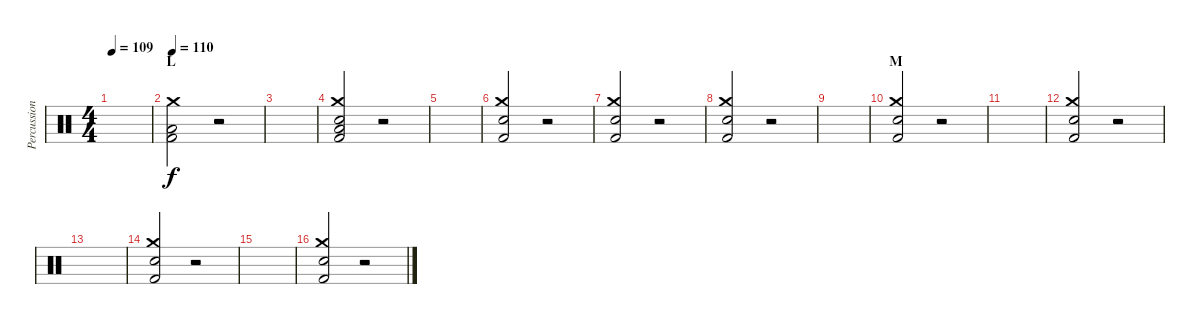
\track ("Percussion" "Percussion") {instrument percussion}
\staff {score}
\articulation defaults
\ts (4 4)
\tempo 109
\clef neutral
\ks c
|
\section ("" "L")
\tempo 110
("Kick (hit) 2" "Low Floor Tom (hit)" "Crash medium (hit)").2 r.2 |
|
("Kick (hit) 2" "Electric Snare (hit)" "Low Floor Tom (hit)" "Crash medium (hit)").2 r.2 |
|
("Kick (hit) 2" "Electric Snare (hit)" "Crash medium (hit)").2 r.2 |
("Kick (hit) 2" "Electric Snare (hit)" "Crash medium (hit)").2 r.2 |
("Kick (hit) 2" "Electric Snare (hit)" "Crash medium (hit)").2 r.2 |
|
\section ("" "M")
("Kick (hit) 2" "Electric Snare (hit)" "Crash medium (hit)").2 r.2 |
|
("Kick (hit) 2" "Electric Snare (hit)" "Crash medium (hit)").2 r.2 |
|
("Kick (hit) 2" "Electric Snare (hit)" "Crash medium (hit)").2 r.2 |
|
("Kick (hit) 2" "Electric Snare (hit)" "Crash medium (hit)").2 r.2
